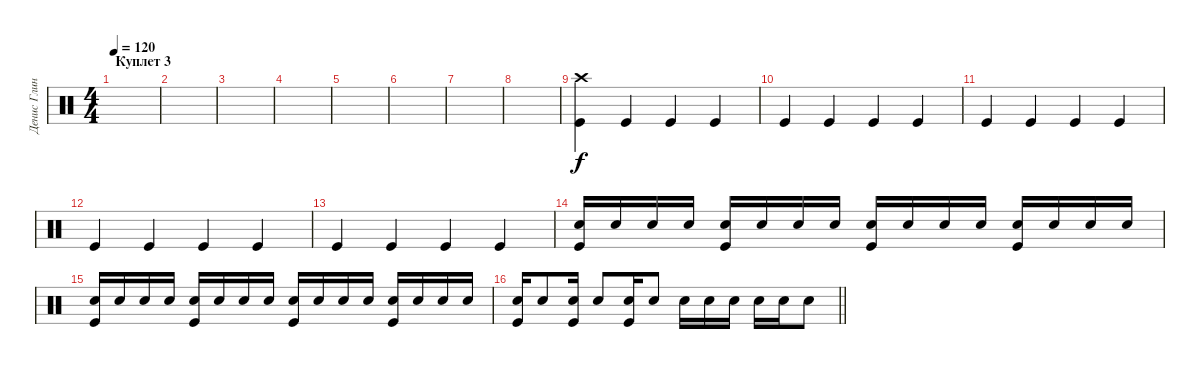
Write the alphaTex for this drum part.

\track ("Денис Глинин" "Денис Глин") {instrument percussion}
\staff {score}
\articulation defaults
\ts (4 4)
\section ("" "Куплет 3")
\tempo 120
\clef neutral
\ks c
|
|
|
|
|
|
|
|
("Kick (hit)" "Crash high (hit)").4 "Kick (hit)".4 "Kick (hit)".4 "Kick (hit)".4 |
"Kick (hit)".4 "Kick (hit)".4 "Kick (hit)".4 "Kick (hit)".4 |
"Kick (hit)".4 "Kick (hit)".4 "Kick (hit)".4 "Kick (hit)".4 |
"Kick (hit)".4 "Kick (hit)".4 "Kick (hit)".4 "Kick (hit)".4 |
"Kick (hit)".4 "Kick (hit)".4 "Kick (hit)".4 "Kick (hit)".4 |
("Snare (hit) 2" "Kick (hit)").16 "Snare (hit) 2".16 "Snare (hit) 2".16 "Snare (hit) 2".16 ("Snare (hit) 2" "Kick (hit)").16 "Snare (hit) 2".16 "Snare (hit) 2".16 "Snare (hit) 2".16 ("Snare (hit) 2" "Kick (hit)").16 "Snare (hit) 2".16 "Snare (hit) 2".16 "Snare (hit) 2".16 ("Snare (hit) 2" "Kick (hit)").16 "Snare (hit) 2".16 "Snare (hit) 2".16 "Snare (hit) 2".16 |
("Snare (hit) 2" "Kick (hit)").16 "Snare (hit) 2".16 "Snare (hit) 2".16 "Snare (hit) 2".16 ("Snare (hit) 2" "Kick (hit)").16 "Snare (hit) 2".16 "Snare (hit) 2".16 "Snare (hit) 2".16 ("Snare (hit) 2" "Kick (hit)").16 "Snare (hit) 2".16 "Snare (hit) 2".16 "Snare (hit) 2".16 ("Snare (hit) 2" "Kick (hit)").16 "Snare (hit) 2".16 "Snare (hit) 2".16 "Snare (hit) 2".16 |
\barLineRight lightlight
("Snare (hit) 2" "Kick (hit)").16 "Snare (hit) 2".8 ("Snare (hit) 2" "Kick (hit)").16 "Snare (hit) 2".8 ("Snare (hit) 2" "Kick (hit)").16 "Snare (hit) 2".8 "Snare (hit) 2".16 "Snare (hit) 2".16 "Snare (hit) 2".16 "Snare (hit) 2".16 "Snare (hit) 2".16 "Snare (hit) 2".8
